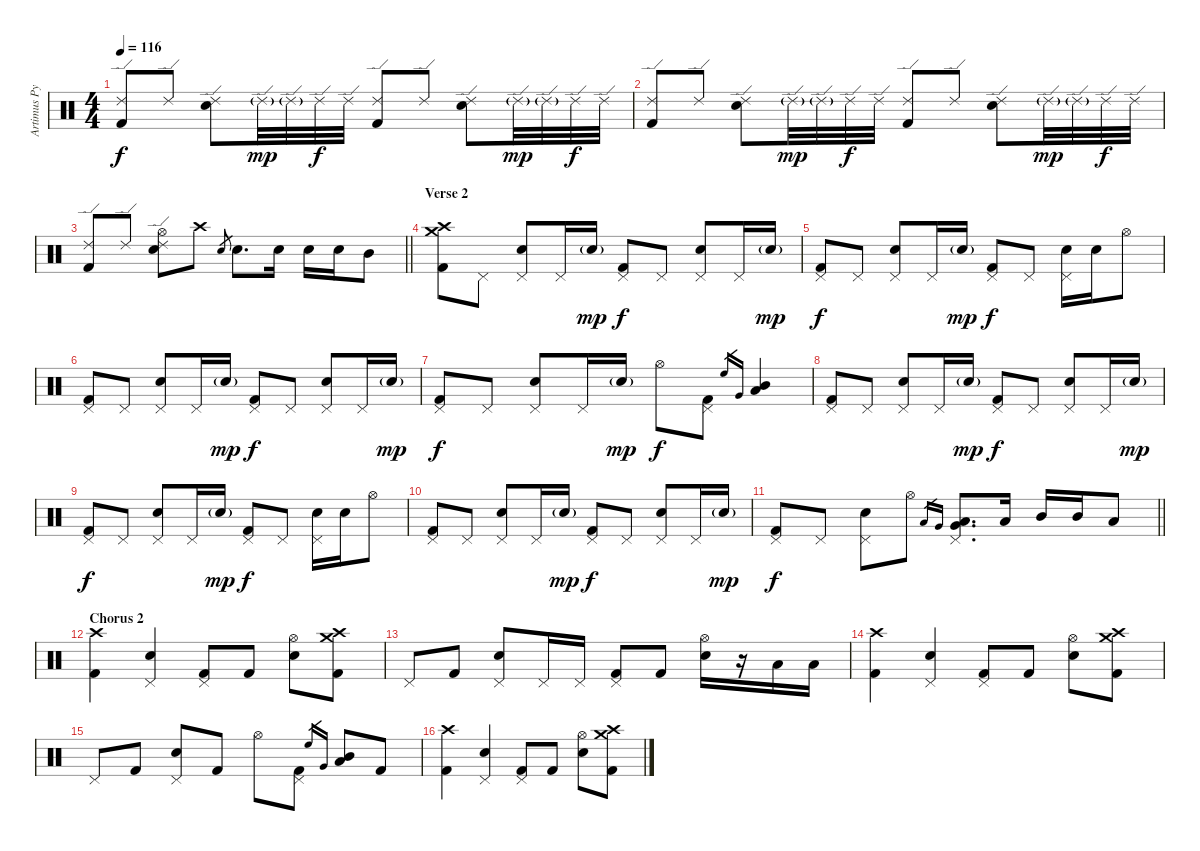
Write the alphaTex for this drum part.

\track ("Artimus Pyle - Drums and Percussion" "Artimus Py") {instrument percussion}
\staff {score}
\articulation defaults
\ts (4 4)
\tempo 116
\clef neutral
\ks c
("Ride (edge) 2" "Kick (hit) 2").8{dy f} "Ride (edge) 2".8 ("Ride (edge) 2" "Snare (hit) 2").8 "Ride (edge) 2"{g}.32{dy mp} "Ride (edge) 2"{g}.32 "Ride (edge) 2".32{dy f} "Ride (edge) 2".32 ("Ride (edge) 2" "Kick (hit) 2").8 "Ride (edge) 2".8 ("Ride (edge) 2" "Snare (hit) 2").8 "Ride (edge) 2"{g}.32{dy mp} "Ride (edge) 2"{g}.32 "Ride (edge) 2".32{dy f} "Ride (edge) 2".32 |
("Ride (edge) 2" "Kick (hit) 2").8 "Ride (edge) 2".8 ("Ride (edge) 2" "Snare (hit) 2").8 "Ride (edge) 2"{g}.32{dy mp} "Ride (edge) 2"{g}.32 "Ride (edge) 2".32{dy f} "Ride (edge) 2".32 ("Ride (edge) 2" "Kick (hit) 2").8 "Ride (edge) 2".8 ("Ride (edge) 2" "Snare (hit) 2").8 "Ride (edge) 2"{g}.32{dy mp} "Ride (edge) 2"{g}.32 "Ride (edge) 2".32{dy f} "Ride (edge) 2".32 |
\barLineRight lightlight
("Ride (edge) 2" "Kick (hit) 2").8 "Ride (edge) 2".8 ("Ride (edge) 2" "Snare (hit) 2" "Hi-Hat (open)").8 "Crash high (hit)".8 "Snare (hit) 2".8{gr} "Snare (hit) 2".8{d} "Snare (hit) 2".16 "Snare (hit) 2".16 "Snare (hit) 2".16 "Mid Tom (hit)".8 |
\section ("" "Verse 2")
("Crash medium (hit)" "Crash high (hit)" "Kick (hit) 2").8 "Pedal Hi-Hat (hit)".8 ("Snare (hit) 2" "Pedal Hi-Hat (hit)").8 "Pedal Hi-Hat (hit)".16 "Snare (hit) 2"{g}.16{dy mp} ("Pedal Hi-Hat (hit)" "Kick (hit) 2").8{dy f} "Pedal Hi-Hat (hit)".8 ("Snare (hit) 2" "Pedal Hi-Hat (hit)").8 "Pedal Hi-Hat (hit)".16 "Snare (hit) 2"{g}.16{dy mp} |
("Pedal Hi-Hat (hit)" "Kick (hit) 2").8{dy f} "Pedal Hi-Hat (hit)".8 ("Snare (hit) 2" "Pedal Hi-Hat (hit)").8 "Pedal Hi-Hat (hit)".16 "Snare (hit) 2"{g}.16{dy mp} ("Pedal Hi-Hat (hit)" "Kick (hit) 2").8{dy f} "Pedal Hi-Hat (hit)".8 ("Snare (hit) 2" "Pedal Hi-Hat (hit)").16 "Snare (hit) 2".16 "Hi-Hat (open)".8 |
("Pedal Hi-Hat (hit)" "Kick (hit) 2").8 "Pedal Hi-Hat (hit)".8 ("Snare (hit) 2" "Pedal Hi-Hat (hit)").8 "Pedal Hi-Hat (hit)".16 "Snare (hit) 2"{g}.16{dy mp} ("Pedal Hi-Hat (hit)" "Kick (hit) 2").8{dy f} "Pedal Hi-Hat (hit)".8 ("Snare (hit) 2" "Pedal Hi-Hat (hit)").8 "Pedal Hi-Hat (hit)".16 "Snare (hit) 2"{g}.16{dy mp} |
("Pedal Hi-Hat (hit)" "Kick (hit) 2").8{dy f} "Pedal Hi-Hat (hit)".8 ("Snare (hit) 2" "Pedal Hi-Hat (hit)").8 "Pedal Hi-Hat (hit)".16 "Snare (hit) 2"{g}.16{dy mp} "Hi-Hat (open)".8{dy f} ("Pedal Hi-Hat (hit)" "Kick (hit) 2").8 "High Floor Tom (hit)".16{gr} "Very Low Tom (hit)".16{gr} ("Mid Tom (hit)" "Low Floor Tom (hit)").4 |
("Pedal Hi-Hat (hit)" "Kick (hit) 2").8 "Pedal Hi-Hat (hit)".8 ("Snare (hit) 2" "Pedal Hi-Hat (hit)").8 "Pedal Hi-Hat (hit)".16 "Snare (hit) 2"{g}.16{dy mp} ("Pedal Hi-Hat (hit)" "Kick (hit) 2").8{dy f} "Pedal Hi-Hat (hit)".8 ("Snare (hit) 2" "Pedal Hi-Hat (hit)").8 "Pedal Hi-Hat (hit)".16 "Snare (hit) 2"{g}.16{dy mp} |
("Pedal Hi-Hat (hit)" "Kick (hit) 2").8{dy f} "Pedal Hi-Hat (hit)".8 ("Snare (hit) 2" "Pedal Hi-Hat (hit)").8 "Pedal Hi-Hat (hit)".16 "Snare (hit) 2"{g}.16{dy mp} ("Pedal Hi-Hat (hit)" "Kick (hit) 2").8{dy f} "Pedal Hi-Hat (hit)".8 ("Snare (hit) 2" "Pedal Hi-Hat (hit)").16 "Snare (hit) 2".16 "Hi-Hat (open)".8 |
("Pedal Hi-Hat (hit)" "Kick (hit) 2").8 "Pedal Hi-Hat (hit)".8 ("Snare (hit) 2" "Pedal Hi-Hat (hit)").8 "Pedal Hi-Hat (hit)".16 "Snare (hit) 2"{g}.16{dy mp} ("Pedal Hi-Hat (hit)" "Kick (hit) 2").8{dy f} "Pedal Hi-Hat (hit)".8 ("Snare (hit) 2" "Pedal Hi-Hat (hit)").8 "Pedal Hi-Hat (hit)".16 "Snare (hit) 2"{g}.16{dy mp} |
\barLineRight lightlight
("Pedal Hi-Hat (hit)" "Kick (hit) 2").8{dy f} "Pedal Hi-Hat (hit)".8 ("Snare (hit) 2" "Pedal Hi-Hat (hit)").8 "Hi-Hat (open)".8 "Low Floor Tom (hit)".16{gr} "Very Low Tom (hit)".16{gr} ("Low Floor Tom (hit)" "Very Low Tom (hit)" "Pedal Hi-Hat (hit)").8{d} "Low Floor Tom (hit)".16 "Mid Tom (hit)".16 "Mid Tom (hit)".16 "Low Tom (hit)".8 |
\section ("" "Chorus 2")
("Crash high (hit)" "Kick (hit) 2").4 ("Snare (hit) 2" "Pedal Hi-Hat (hit)").4 ("Pedal Hi-Hat (hit)" "Kick (hit) 2").8 "Kick (hit) 2".8 ("Snare (hit) 2" "Hi-Hat (open)").8 ("Crash medium (hit)" "Crash high (hit)" "Kick (hit) 2").8 |
"Pedal Hi-Hat (hit)".8 "Kick (hit) 2".8 ("Snare (hit) 2" "Pedal Hi-Hat (hit)").8 "Pedal Hi-Hat (hit)".16 "Pedal Hi-Hat (hit)".16 ("Pedal Hi-Hat (hit)" "Kick (hit) 2").8 "Kick (hit) 2".8 ("Snare (hit) 2" "Hi-Hat (open)").16 r.16 "Low Floor Tom (hit)".16 "Low Floor Tom (hit)".16 |
("Crash high (hit)" "Kick (hit) 2").4 ("Snare (hit) 2" "Pedal Hi-Hat (hit)").4 ("Pedal Hi-Hat (hit)" "Kick (hit) 2").8 "Kick (hit) 2".8 ("Snare (hit) 2" "Hi-Hat (open)").8 ("Crash medium (hit)" "Crash high (hit)" "Kick (hit) 2").8 |
"Pedal Hi-Hat (hit)".8 "Kick (hit) 2".8 ("Snare (hit) 2" "Pedal Hi-Hat (hit)").8 "Kick (hit) 2".8 "Hi-Hat (open)".8 ("Pedal Hi-Hat (hit)" "Kick (hit) 2").8 "High Floor Tom (hit)".16{gr} "Very Low Tom (hit)".16{gr} ("Mid Tom (hit)" "Low Floor Tom (hit)").8 "Kick (hit) 2".8 |
("Crash high (hit)" "Kick (hit) 2").4 ("Snare (hit) 2" "Pedal Hi-Hat (hit)").4 ("Pedal Hi-Hat (hit)" "Kick (hit) 2").8 "Kick (hit) 2".8 ("Snare (hit) 2" "Hi-Hat (open)").8 ("Crash medium (hit)" "Crash high (hit)" "Kick (hit) 2").8
